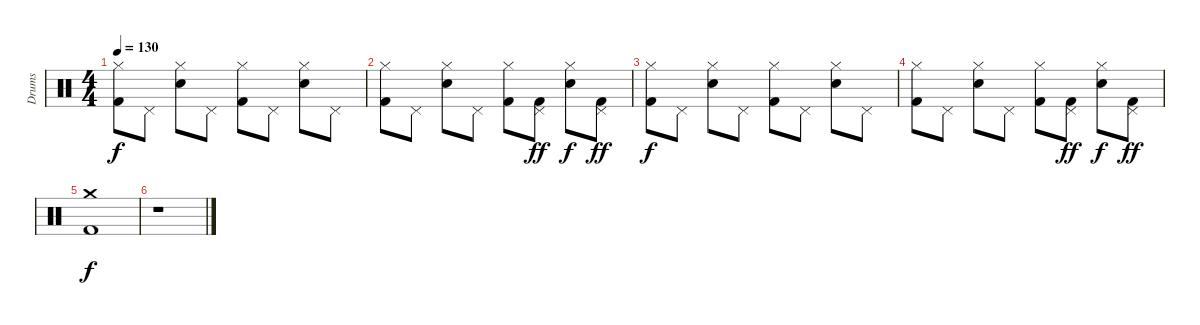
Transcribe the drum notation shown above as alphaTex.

\track ("Drums" "Drums") {instrument percussion}
\staff {score}
\articulation defaults
\ts (4 4)
\tempo 130
\clef neutral
\ks c
("Kick (hit) 2" "Hi-Hat (closed)").8{dy f} "Pedal Hi-Hat (hit)".8 ("Electric Snare (hit)" "Hi-Hat (closed)").8 "Pedal Hi-Hat (hit)".8 ("Kick (hit) 2" "Hi-Hat (closed)").8 "Pedal Hi-Hat (hit)".8 ("Electric Snare (hit)" "Hi-Hat (closed)").8 "Pedal Hi-Hat (hit)".8 |
("Kick (hit) 2" "Hi-Hat (closed)").8 "Pedal Hi-Hat (hit)".8 ("Electric Snare (hit)" "Hi-Hat (closed)").8 "Pedal Hi-Hat (hit)".8 ("Kick (hit) 2" "Hi-Hat (closed)").8 ("Kick (hit) 2" "Pedal Hi-Hat (hit)").8{dy ff} ("Electric Snare (hit)" "Hi-Hat (closed)").8{dy f} ("Kick (hit) 2" "Pedal Hi-Hat (hit)").8{dy ff} |
("Kick (hit) 2" "Hi-Hat (closed)").8{dy f} "Pedal Hi-Hat (hit)".8 ("Electric Snare (hit)" "Hi-Hat (closed)").8 "Pedal Hi-Hat (hit)".8 ("Kick (hit) 2" "Hi-Hat (closed)").8 "Pedal Hi-Hat (hit)".8 ("Electric Snare (hit)" "Hi-Hat (closed)").8 "Pedal Hi-Hat (hit)".8 |
("Kick (hit) 2" "Hi-Hat (closed)").8 "Pedal Hi-Hat (hit)".8 ("Electric Snare (hit)" "Hi-Hat (closed)").8 "Pedal Hi-Hat (hit)".8 ("Kick (hit) 2" "Hi-Hat (closed)").8 ("Kick (hit) 2" "Pedal Hi-Hat (hit)").8{dy ff} ("Electric Snare (hit)" "Hi-Hat (closed)").8{dy f} ("Kick (hit) 2" "Pedal Hi-Hat (hit)").8{dy ff} |
("Kick (hit) 2" "Crash medium (hit)").1{dy f} |
r.1
